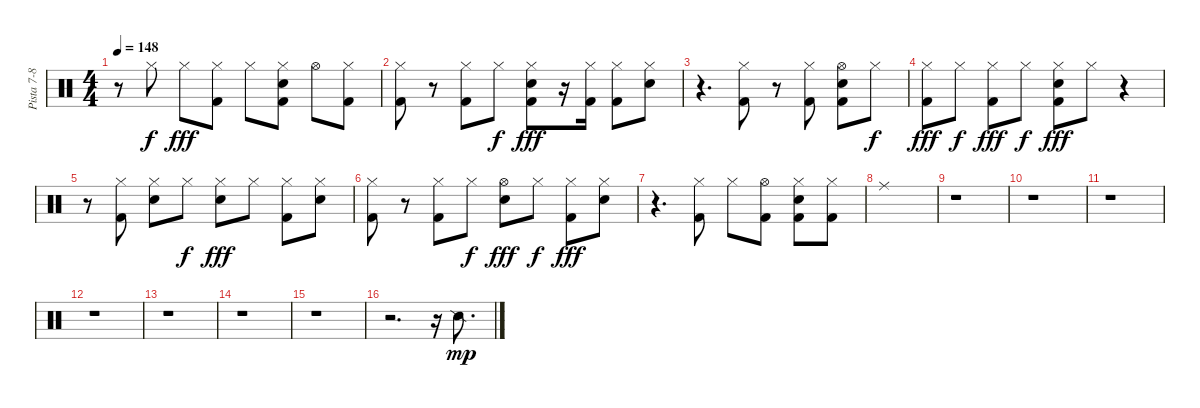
\track ("Pista 7-8" "Pista 7-8") {instrument percussion}
\staff {score}
\articulation defaults
\ts (4 4)
\tempo 148
\clef neutral
\ks c
r.8{dy fff} "Hi-Hat (closed)".8{dy f} "Hi-Hat (closed)".8{dy fff} ("Hi-Hat (closed)" "Kick (hit) 2").8 "Hi-Hat (closed)".8 ("Hi-Hat (closed)" "Electric Snare (hit)" "Kick (hit) 2").8 "Hi-Hat (open)".8 ("Hi-Hat (closed)" "Kick (hit) 2").8 |
("Hi-Hat (closed)" "Kick (hit) 2").8 r.8 ("Hi-Hat (closed)" "Kick (hit) 2").8 "Hi-Hat (closed)".8{dy f} ("Hi-Hat (closed)" "Electric Snare (hit)" "Kick (hit) 2").8{dy fff} r.16 ("Hi-Hat (closed)" "Kick (hit) 2").16 ("Hi-Hat (closed)" "Kick (hit) 2").8 ("Hi-Hat (closed)" "Electric Snare (hit)").8 |
r.4{d} ("Hi-Hat (closed)" "Kick (hit) 2").8 r.8 ("Hi-Hat (closed)" "Kick (hit) 2").8 ("Hi-Hat (open)" "Kick (hit) 2" "Electric Snare (hit)").8 "Hi-Hat (closed)".8{dy f} |
("Hi-Hat (closed)" "Kick (hit) 2").8{dy fff} "Hi-Hat (closed)".8{dy f} ("Hi-Hat (closed)" "Kick (hit) 2").8{dy fff} "Hi-Hat (closed)".8{dy f} ("Hi-Hat (closed)" "Electric Snare (hit)" "Kick (hit) 2").8{dy fff} "Hi-Hat (closed)".8 r.4 |
r.8 ("Hi-Hat (closed)" "Kick (hit) 2").8 ("Hi-Hat (closed)" "Electric Snare (hit)").8 "Hi-Hat (closed)".8{dy f} ("Hi-Hat (closed)" "Electric Snare (hit)").8{dy fff} "Hi-Hat (closed)".8 ("Hi-Hat (closed)" "Kick (hit) 2").8 ("Hi-Hat (closed)" "Electric Snare (hit)").8 |
("Hi-Hat (closed)" "Kick (hit) 2").8 r.8 ("Hi-Hat (closed)" "Kick (hit) 2").8 "Hi-Hat (closed)".8{dy f} ("Hi-Hat (open)" "Electric Snare (hit)").8{dy fff} "Hi-Hat (closed)".8{dy f} ("Hi-Hat (closed)" "Kick (hit) 2").8{dy fff} ("Hi-Hat (closed)" "Electric Snare (hit)").8 |
r.4{d} ("Hi-Hat (closed)" "Kick (hit) 2").8 "Hi-Hat (closed)".8 ("Hi-Hat (open)" "Kick (hit) 2").8 ("Hi-Hat (closed)" "Kick (hit) 2" "Electric Snare (hit)").8 ("Hi-Hat (closed)" "Kick (hit) 2").8 |
"Ride (middle)".1 |
r.1 |
r.1 |
r.1 |
r.1 |
r.1 |
r.1 |
r.1 |
r.2{d} r.16 "Snare (side stick) 2".8{d dy mp}
